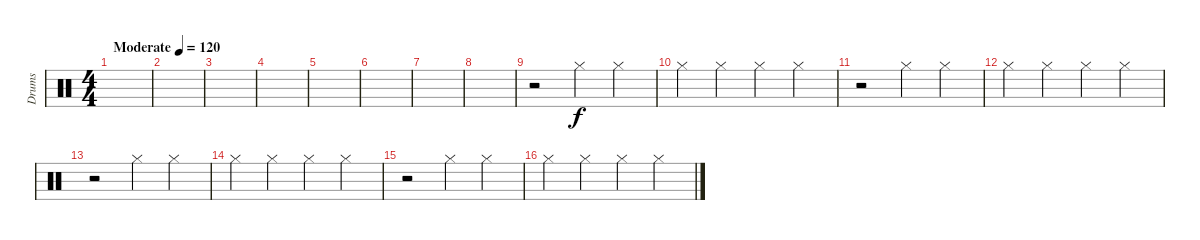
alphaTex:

\track ("Drums" "Drums") {instrument percussion}
\staff {score}
\articulation defaults
\ts (4 4)
\tempo (120 "Moderate")
\clef neutral
\ks c
|
|
|
|
|
|
|
|
r.2 "Hi-Hat (closed)".4 "Hi-Hat (closed)".4 |
"Hi-Hat (closed)".4 "Hi-Hat (closed)".4 "Hi-Hat (closed)".4 "Hi-Hat (closed)".4 |
r.2 "Hi-Hat (closed)".4 "Hi-Hat (closed)".4 |
"Hi-Hat (closed)".4 "Hi-Hat (closed)".4 "Hi-Hat (closed)".4 "Hi-Hat (closed)".4 |
r.2 "Hi-Hat (closed)".4 "Hi-Hat (closed)".4 |
"Hi-Hat (closed)".4 "Hi-Hat (closed)".4 "Hi-Hat (closed)".4 "Hi-Hat (closed)".4 |
r.2 "Hi-Hat (closed)".4 "Hi-Hat (closed)".4 |
"Hi-Hat (closed)".4 "Hi-Hat (closed)".4 "Hi-Hat (closed)".4 "Hi-Hat (closed)".4
